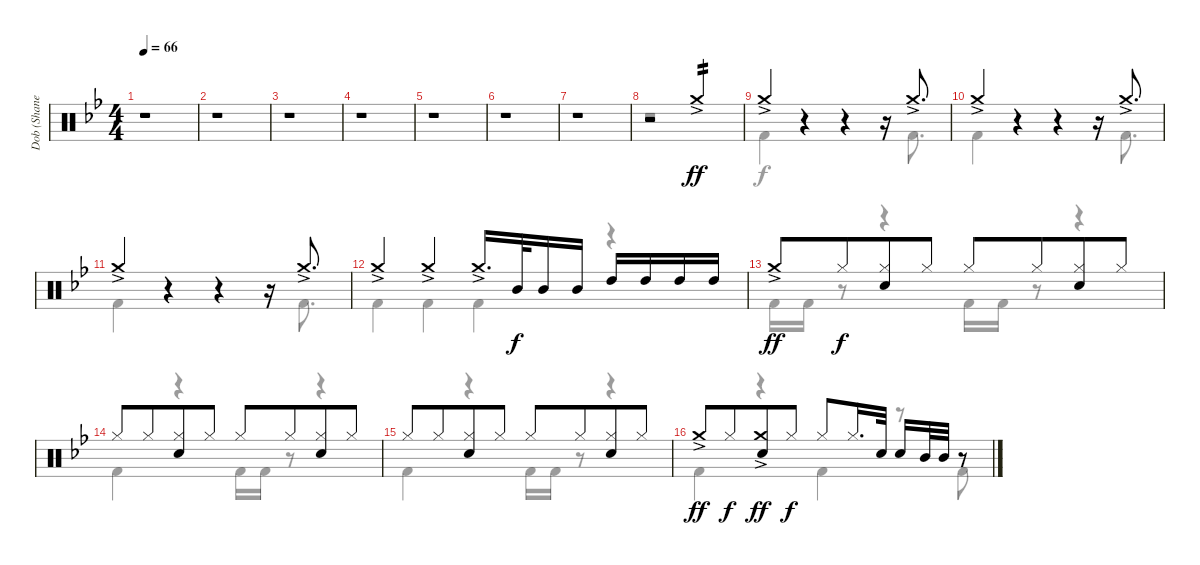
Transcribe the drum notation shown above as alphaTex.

\track ("Dob (Shane Gaalaas)" "Dob (Shane") {instrument percussion}
\staff {score}
\articulation defaults
\voice
\ts (4 4)
\tempo 66
\clef neutral
\ks bb
r.1{dy ff} |
r.1 |
r.1 |
r.1 |
r.1 |
r.1 |
r.1 |
r.2 "Crash medium (hit)"{ac}.2{tp 2 volume 16} |
"Crash medium (hit)"{ac}.4{volume 11} r.4 r.4 r.16 "Crash medium (hit)"{ac}.8{d} |
"Crash medium (hit)"{ac}.4 r.4 r.4 r.16 "Crash medium (hit)"{ac}.8{d} |
"Crash medium (hit)"{ac}.4 r.4 r.4 r.16 "Crash medium (hit)"{ac}.8{d} |
"Crash medium (hit)"{ac}.4 "Crash medium (hit)"{ac}.4 "Crash medium (hit)"{ac}.16{d} "Mid Tom (hit)".32{dy f} "Mid Tom (hit)".16 "Mid Tom (hit)".16 "High Tom (hit)".16 "High Tom (hit)".16 "High Tom (hit)".16 "High Tom (hit)".16 |
"Crash medium (hit)"{ac}.8{dy ff} "Hi-Hat (closed)".8{dy f beam merge} ("Hi-Hat (closed)" "Electric Snare (hit)").8 "Hi-Hat (closed)".8 "Hi-Hat (closed)".8 "Hi-Hat (closed)".8{beam merge} ("Hi-Hat (closed)" "Electric Snare (hit)").8 "Hi-Hat (closed)".8 |
"Hi-Hat (closed)".8 "Hi-Hat (closed)".8{beam merge} ("Hi-Hat (closed)" "Electric Snare (hit)").8 "Hi-Hat (closed)".8 "Hi-Hat (closed)".8 "Hi-Hat (closed)".8{beam merge} ("Hi-Hat (closed)" "Electric Snare (hit)").8 "Hi-Hat (closed)".8 |
"Hi-Hat (closed)".8 "Hi-Hat (closed)".8{beam merge} ("Hi-Hat (closed)" "Electric Snare (hit)").8 "Hi-Hat (closed)".8 "Hi-Hat (closed)".8 "Hi-Hat (closed)".8{beam merge} ("Hi-Hat (closed)" "Electric Snare (hit)").8 "Hi-Hat (closed)".8 |
"Crash medium (hit)"{ac}.8{dy ff} "Hi-Hat (closed)".8{dy f beam merge} ("Crash medium (hit)"{ac} "Electric Snare (hit)").8{dy ff} "Hi-Hat (closed)".8{dy f} "Hi-Hat (closed)".8 "Hi-Hat (closed)".16{d} "Electric Snare (hit)".32 "Electric Snare (hit)".16 "Mid Tom (hit)".32 "Mid Tom (hit)".32 r.8
\voice
\clef neutral
\ottava regular
\simile none
\ks bb
r.1{dy f} |
r.1 |
r.1 |
r.1 |
r.1 |
r.1 |
r.1 |
r.1 |
"Kick (hit) 2".4 r.4 r.4 r.16 "Kick (hit) 2".8{d} |
"Kick (hit) 2".4 r.4 r.4 r.16 "Kick (hit) 2".8{d} |
"Kick (hit) 2".4 r.4 r.4 r.16 "Kick (hit) 2".8{d} |
"Kick (hit) 2".4 "Kick (hit) 2".4 "Kick (hit) 2".4 r.4 |
"Kick (hit) 2".16 "Kick (hit) 2".16 r.8 r.4 "Kick (hit) 2".16 "Kick (hit) 2".16 r.8 r.4 |
"Kick (hit) 2".4 r.4 "Kick (hit) 2".16 "Kick (hit) 2".16 r.8 r.4 |
"Kick (hit) 2".4 r.4 "Kick (hit) 2".16 "Kick (hit) 2".16 r.8 r.4 |
"Kick (hit) 2".4 r.4 "Kick (hit) 2".4 r.8 "Kick (hit) 2".8
